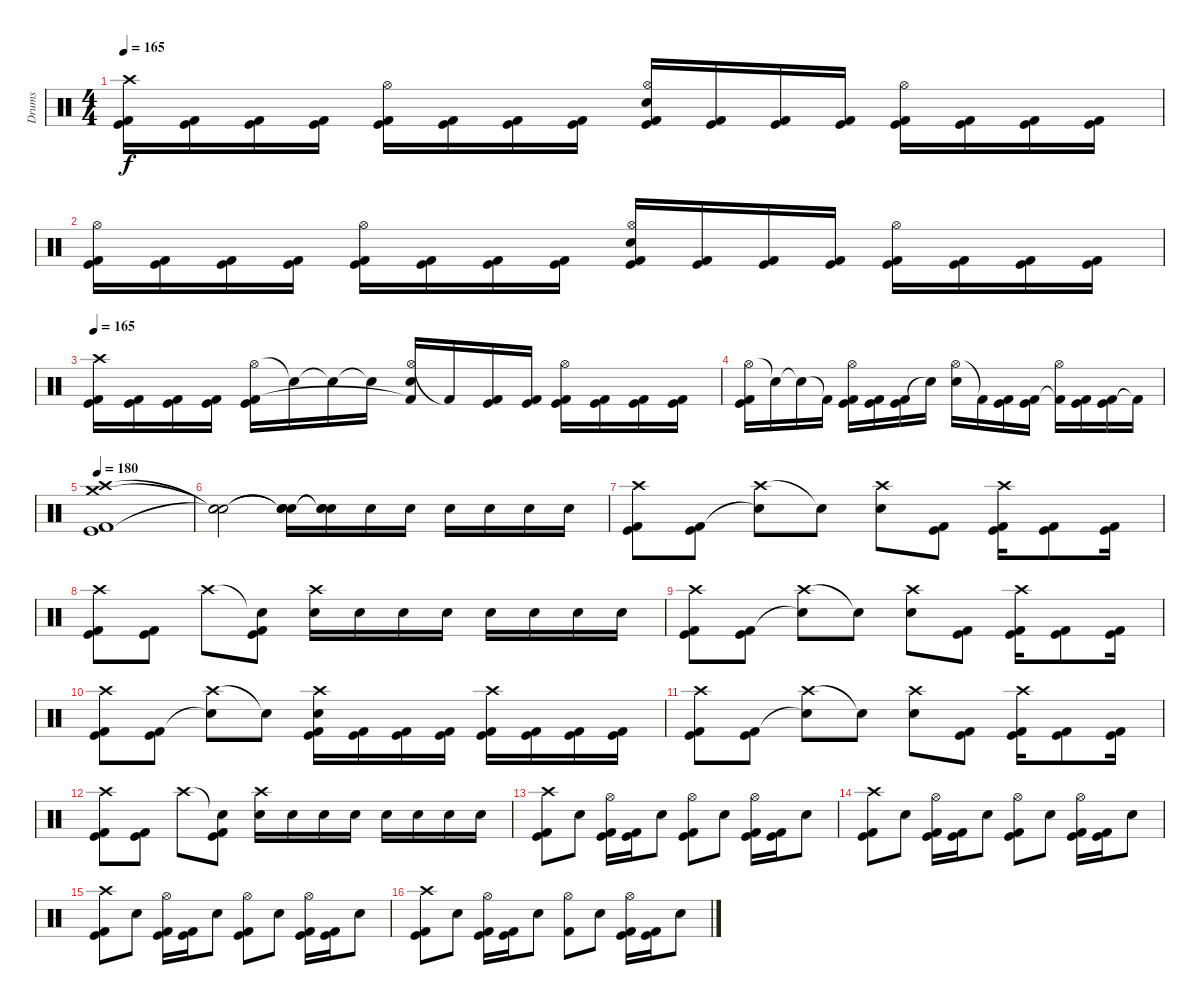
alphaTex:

\track ("Drums" "Drums") {instrument percussion}
\staff {score}
\articulation defaults
\ts (4 4)
\tempo 165
\clef neutral
\ks c
("Crash high (hit)" "Kick (hit)" "Kick (hit) 2").16{dy f} ("Kick (hit)" "Kick (hit) 2").16 ("Kick (hit)" "Kick (hit) 2").16 ("Kick (hit)" "Kick (hit) 2").16 ("Hi-Hat (open)" "Kick (hit)" "Kick (hit) 2").16 ("Kick (hit)" "Kick (hit) 2").16 ("Kick (hit)" "Kick (hit) 2").16 ("Kick (hit)" "Kick (hit) 2").16 ("Kick (hit)" "Hi-Hat (open)" "Electric Snare (hit)" "Kick (hit) 2").16 ("Kick (hit)" "Kick (hit) 2").16 ("Kick (hit)" "Kick (hit) 2").16 ("Kick (hit)" "Kick (hit) 2").16 ("Hi-Hat (open)" "Kick (hit)" "Kick (hit) 2").16 ("Kick (hit)" "Kick (hit) 2").16 ("Kick (hit)" "Kick (hit) 2").16 ("Kick (hit)" "Kick (hit) 2").16 |
("Hi-Hat (open)" "Kick (hit)" "Kick (hit) 2").16 ("Kick (hit)" "Kick (hit) 2").16 ("Kick (hit)" "Kick (hit) 2").16 ("Kick (hit)" "Kick (hit) 2").16 ("Hi-Hat (open)" "Kick (hit)" "Kick (hit) 2").16 ("Kick (hit)" "Kick (hit) 2").16 ("Kick (hit)" "Kick (hit) 2").16 ("Kick (hit)" "Kick (hit) 2").16 ("Kick (hit)" "Hi-Hat (open)" "Electric Snare (hit)" "Kick (hit) 2").16 ("Kick (hit)" "Kick (hit) 2").16 ("Kick (hit)" "Kick (hit) 2").16 ("Kick (hit)" "Kick (hit) 2").16 ("Hi-Hat (open)" "Kick (hit)" "Kick (hit) 2").16 ("Kick (hit)" "Kick (hit) 2").16 ("Kick (hit)" "Kick (hit) 2").16 ("Kick (hit)" "Kick (hit) 2").16 |
\tempo 165
("Crash high (hit)" "Kick (hit)" "Kick (hit) 2").16 ("Kick (hit)" "Kick (hit) 2").16 ("Kick (hit)" "Kick (hit) 2").16 ("Kick (hit)" "Kick (hit) 2").16 ("Hi-Hat (open)" "Kick (hit)" "Kick (hit) 2").16 "Snare (hit)"{t}.16 "Snare (hit)"{t}.16 "Snare (hit)"{t}.16 ("Hi-Hat (open)" "Electric Snare (hit)" "Kick (hit) 2"{t}).16 "Kick (hit) 2"{t}.16 ("Kick (hit)" "Kick (hit) 2").16 ("Kick (hit)" "Kick (hit) 2").16 ("Hi-Hat (open)" "Kick (hit)" "Kick (hit) 2").16 ("Kick (hit)" "Kick (hit) 2").16 ("Kick (hit)" "Kick (hit) 2").16 ("Kick (hit)" "Kick (hit) 2").16 |
("Hi-Hat (open)" "Kick (hit)" "Kick (hit) 2").16 "Snare (hit)"{t}.16 "Snare (hit)"{t}.16 "Kick (hit) 2"{t}.16 ("Hi-Hat (open)" "Kick (hit)" "Kick (hit) 2").16 ("Kick (hit)" "Kick (hit) 2").16 ("Kick (hit)" "Kick (hit) 2").16 "Snare (hit)"{t}.16 ("Hi-Hat (open)" "Electric Snare (hit)").16 "Kick (hit) 2"{t}.16 ("Kick (hit)" "Kick (hit) 2").16 ("Kick (hit)" "Kick (hit) 2").16 ("Hi-Hat (open)" "Kick (hit) 2"{t}).16 ("Kick (hit)" "Kick (hit) 2").16 ("Kick (hit)" "Kick (hit) 2").16 "Kick (hit) 2"{t}.16 |
\tempo 180
("Kick (hit)" "Crash medium (hit)" "Crash high (hit)" "Kick (hit) 2").1 |
("Snare (hit)"{t} "Snare (hit)"{t} "Snare (hit)"{t}).2 ("Snare (hit)"{t} "Snare (hit)"{t} "Electric Snare (hit)"{t}).16 ("Snare (hit)"{t} "Snare (hit)"{t} "Electric Snare (hit)"{t}).16 "Electric Snare (hit)".16 "Electric Snare (hit)".16 "Electric Snare (hit)".16 "Electric Snare (hit)".16 "Electric Snare (hit)".16 "Electric Snare (hit)".16 |
("Crash high (hit)" "Kick (hit)" "Kick (hit) 2").8 ("Kick (hit)" "Kick (hit) 2").8 ("Crash high (hit)" "Snare (hit)"{t}).8 "Snare (hit)"{t}.8 ("Crash high (hit)" "Electric Snare (hit)").8 ("Kick (hit)" "Kick (hit) 2").8 ("Crash high (hit)" "Kick (hit)" "Kick (hit) 2").16 ("Kick (hit)" "Kick (hit) 2").8 ("Kick (hit)" "Kick (hit) 2").16 |
("Crash high (hit)" "Kick (hit)" "Kick (hit) 2").8 ("Kick (hit)" "Kick (hit) 2").8 "Crash high (hit)".8 ("Snare (hit)"{t} "Kick (hit)" "Kick (hit) 2").8 ("Crash high (hit)" "Electric Snare (hit)").16 "Electric Snare (hit)".16 "Electric Snare (hit)".16 "Electric Snare (hit)".16 "Electric Snare (hit)".16 "Electric Snare (hit)".16 "Electric Snare (hit)".16 "Electric Snare (hit)".16 |
("Crash high (hit)" "Kick (hit)" "Kick (hit) 2").8 ("Kick (hit)" "Kick (hit) 2").8 ("Crash high (hit)" "Snare (hit)"{t}).8 "Snare (hit)"{t}.8 ("Crash high (hit)" "Electric Snare (hit)").8 ("Kick (hit)" "Kick (hit) 2").8 ("Crash high (hit)" "Kick (hit)" "Kick (hit) 2").16 ("Kick (hit)" "Kick (hit) 2").8 ("Kick (hit)" "Kick (hit) 2").16 |
("Crash high (hit)" "Kick (hit)" "Kick (hit) 2").8 ("Kick (hit)" "Kick (hit) 2").8 ("Crash high (hit)" "Snare (hit)"{t}).8 "Snare (hit)"{t}.8 ("Crash high (hit)" "Kick (hit)" "Electric Snare (hit)" "Kick (hit) 2").16 ("Kick (hit)" "Kick (hit) 2").16 ("Kick (hit)" "Kick (hit) 2").16 ("Kick (hit)" "Kick (hit) 2").16 ("Crash high (hit)" "Kick (hit)" "Kick (hit) 2").16 ("Kick (hit)" "Kick (hit) 2").16 ("Kick (hit)" "Kick (hit) 2").16 ("Kick (hit)" "Kick (hit) 2").16 |
("Crash high (hit)" "Kick (hit)" "Kick (hit) 2").8 ("Kick (hit)" "Kick (hit) 2").8 ("Crash high (hit)" "Snare (hit)"{t}).8 "Snare (hit)"{t}.8 ("Crash high (hit)" "Electric Snare (hit)").8 ("Kick (hit)" "Kick (hit) 2").8 ("Crash high (hit)" "Kick (hit)" "Kick (hit) 2").16 ("Kick (hit)" "Kick (hit) 2").8 ("Kick (hit)" "Kick (hit) 2").16 |
("Crash high (hit)" "Kick (hit)" "Kick (hit) 2").8 ("Kick (hit)" "Kick (hit) 2").8 "Crash high (hit)".8 ("Snare (hit)"{t} "Kick (hit)" "Kick (hit) 2").8 ("Crash high (hit)" "Electric Snare (hit)").16 "Electric Snare (hit)".16 "Electric Snare (hit)".16 "Electric Snare (hit)".16 "Electric Snare (hit)".16 "Electric Snare (hit)".16 "Electric Snare (hit)".16 "Electric Snare (hit)".16 |
("Crash high (hit)" "Kick (hit)" "Kick (hit) 2").8 "Electric Snare (hit)".8 ("Hi-Hat (open)" "Kick (hit)" "Kick (hit) 2").16 ("Kick (hit)" "Kick (hit) 2").16 "Electric Snare (hit)".8 ("Hi-Hat (open)" "Kick (hit)" "Kick (hit) 2").8 "Electric Snare (hit)".8 ("Hi-Hat (open)" "Kick (hit)" "Kick (hit) 2").16 ("Kick (hit)" "Kick (hit) 2").16 "Electric Snare (hit)".8 |
("Crash high (hit)" "Kick (hit)" "Kick (hit) 2").8 "Electric Snare (hit)".8 ("Hi-Hat (open)" "Kick (hit)" "Kick (hit) 2").16 ("Kick (hit)" "Kick (hit) 2").16 "Electric Snare (hit)".8 ("Hi-Hat (open)" "Kick (hit)" "Kick (hit) 2").8 "Electric Snare (hit)".8 ("Hi-Hat (open)" "Kick (hit)" "Kick (hit) 2").16 ("Kick (hit)" "Kick (hit) 2").16 "Electric Snare (hit)".8 |
("Crash high (hit)" "Kick (hit)" "Kick (hit) 2").8 "Electric Snare (hit)".8 ("Hi-Hat (open)" "Kick (hit)" "Kick (hit) 2").16 ("Kick (hit)" "Kick (hit) 2").16 "Electric Snare (hit)".8 ("Hi-Hat (open)" "Kick (hit)" "Kick (hit) 2").8 "Electric Snare (hit)".8 ("Hi-Hat (open)" "Kick (hit)" "Kick (hit) 2").16 ("Kick (hit)" "Kick (hit) 2").16 "Electric Snare (hit)".8 |
("Crash high (hit)" "Kick (hit)" "Kick (hit) 2").8 "Electric Snare (hit)".8 ("Hi-Hat (open)" "Kick (hit)" "Kick (hit) 2").16 ("Kick (hit)" "Kick (hit) 2").16 "Electric Snare (hit)".8 ("Hi-Hat (open)" "Kick (hit) 2").8 "Electric Snare (hit)".8 ("Hi-Hat (open)" "Kick (hit)" "Kick (hit) 2").16 ("Kick (hit)" "Kick (hit) 2").16 "Electric Snare (hit)".8
